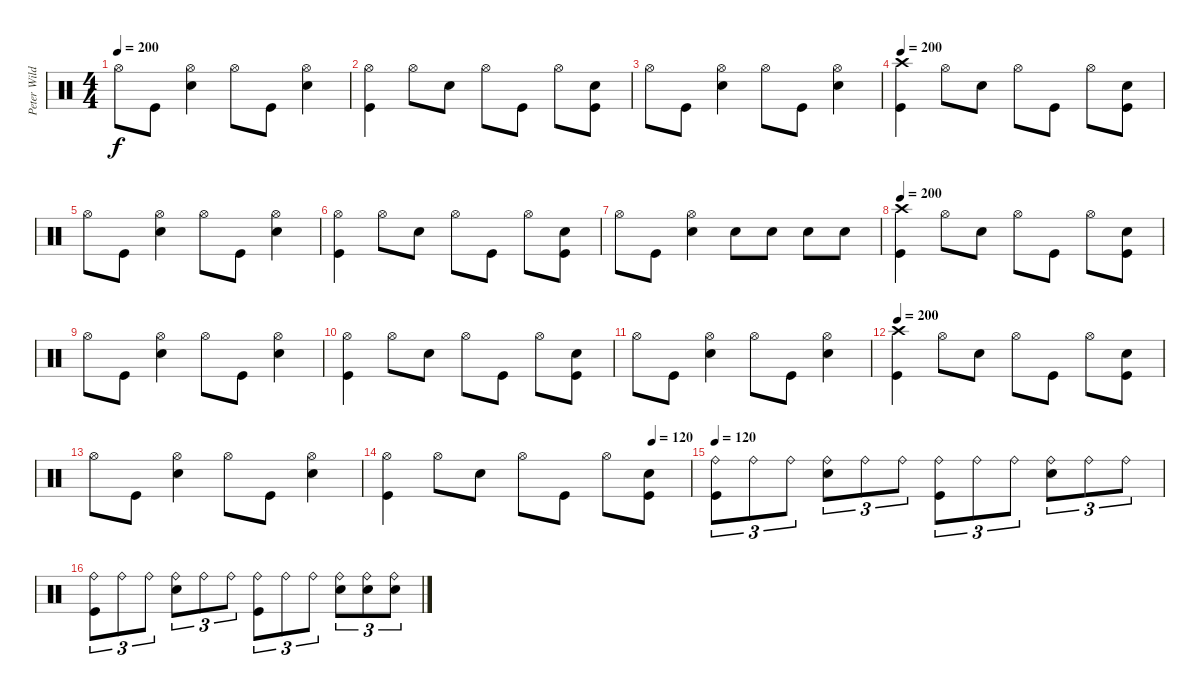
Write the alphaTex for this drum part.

\track ("Peter Wildoer " "Peter Wild") {instrument percussion}
\staff {score}
\articulation defaults
\ts (4 4)
\tempo 200
\clef neutral
\ks c "Hi-Hat (open)".8{dy f} "Kick (hit)".8
("Hi-Hat (open)" "Electric Snare (hit)").4 "Hi-Hat (open)".8 "Kick (hit)".8 ("Hi-Hat (open)" "Electric Snare (hit)").4 |
("Hi-Hat (open)" "Kick (hit)").4 "Hi-Hat (open)".8 "Electric Snare (hit)".8 "Hi-Hat (open)".8 "Kick (hit)".8 "Hi-Hat (open)".8 ("Electric Snare (hit)" "Kick (hit)").8 |
"Hi-Hat (open)".8 "Kick (hit)".8 ("Hi-Hat (open)" "Electric Snare (hit)").4 "Hi-Hat (open)".8 "Kick (hit)".8 ("Hi-Hat (open)" "Electric Snare (hit)").4 |
\tempo 200
("Crash high (hit)" "Kick (hit)").4 "Hi-Hat (open)".8 "Electric Snare (hit)".8 "Hi-Hat (open)".8 "Kick (hit)".8 "Hi-Hat (open)".8 ("Electric Snare (hit)" "Kick (hit)").8 |
"Hi-Hat (open)".8 "Kick (hit)".8 ("Hi-Hat (open)" "Electric Snare (hit)").4 "Hi-Hat (open)".8 "Kick (hit)".8 ("Hi-Hat (open)" "Electric Snare (hit)").4 |
("Hi-Hat (open)" "Kick (hit)").4 "Hi-Hat (open)".8 "Electric Snare (hit)".8 "Hi-Hat (open)".8 "Kick (hit)".8 "Hi-Hat (open)".8 ("Electric Snare (hit)" "Kick (hit)").8 |
"Hi-Hat (open)".8 "Kick (hit)".8 ("Hi-Hat (open)" "Electric Snare (hit)").4 "Electric Snare (hit)".8 "Electric Snare (hit)".8 "Electric Snare (hit)".8 "Electric Snare (hit)".8 |
\tempo 200
("Crash high (hit)" "Kick (hit)").4 "Hi-Hat (open)".8 "Electric Snare (hit)".8 "Hi-Hat (open)".8 "Kick (hit)".8 "Hi-Hat (open)".8 ("Electric Snare (hit)" "Kick (hit)").8 |
"Hi-Hat (open)".8 "Kick (hit)".8 ("Hi-Hat (open)" "Electric Snare (hit)").4 "Hi-Hat (open)".8 "Kick (hit)".8 ("Hi-Hat (open)" "Electric Snare (hit)").4 |
("Hi-Hat (open)" "Kick (hit)").4 "Hi-Hat (open)".8 "Electric Snare (hit)".8 "Hi-Hat (open)".8 "Kick (hit)".8 "Hi-Hat (open)".8 ("Electric Snare (hit)" "Kick (hit)").8 |
"Hi-Hat (open)".8 "Kick (hit)".8 ("Hi-Hat (open)" "Electric Snare (hit)").4 "Hi-Hat (open)".8 "Kick (hit)".8 ("Hi-Hat (open)" "Electric Snare (hit)").4 |
\tempo 200
("Crash high (hit)" "Kick (hit)").4 "Hi-Hat (open)".8 "Electric Snare (hit)".8 "Hi-Hat (open)".8 "Kick (hit)".8 "Hi-Hat (open)".8 ("Electric Snare (hit)" "Kick (hit)").8 |
"Hi-Hat (open)".8 "Kick (hit)".8 ("Hi-Hat (open)" "Electric Snare (hit)").4 "Hi-Hat (open)".8 "Kick (hit)".8 ("Hi-Hat (open)" "Electric Snare (hit)").4 |
\tempo (120 0.875)
("Hi-Hat (open)" "Kick (hit)").4 "Hi-Hat (open)".8 "Electric Snare (hit)".8 "Hi-Hat (open)".8 "Kick (hit)".8 "Hi-Hat (open)".8 ("Electric Snare (hit)" "Kick (hit)").8 |
\tempo 120
("Ride (bell)" "Kick (hit)").8{tu (3 2)} "Ride (bell)".8{tu (3 2)} "Ride (bell)".8{tu (3 2)} ("Ride (bell)" "Electric Snare (hit)").8{tu (3 2)} "Ride (bell)".8{tu (3 2)} "Ride (bell)".8{tu (3 2)} ("Ride (bell)" "Kick (hit)").8{tu (3 2)} "Ride (bell)".8{tu (3 2)} "Ride (bell)".8{tu (3 2)} ("Ride (bell)" "Electric Snare (hit)").8{tu (3 2)} "Ride (bell)".8{tu (3 2)} "Ride (bell)".8{tu (3 2)} |
("Ride (bell)" "Kick (hit)").8{tu (3 2)} "Ride (bell)".8{tu (3 2)} "Ride (bell)".8{tu (3 2)} ("Ride (bell)" "Electric Snare (hit)").8{tu (3 2)} "Ride (bell)".8{tu (3 2)} "Ride (bell)".8{tu (3 2)} ("Ride (bell)" "Kick (hit)").8{tu (3 2)} "Ride (bell)".8{tu (3 2)} "Ride (bell)".8{tu (3 2)} ("Ride (bell)" "Electric Snare (hit)").8{tu (3 2)} ("Ride (bell)" "Electric Snare (hit)").8{tu (3 2)} ("Ride (bell)" "Electric Snare (hit)").8{tu (3 2)}
